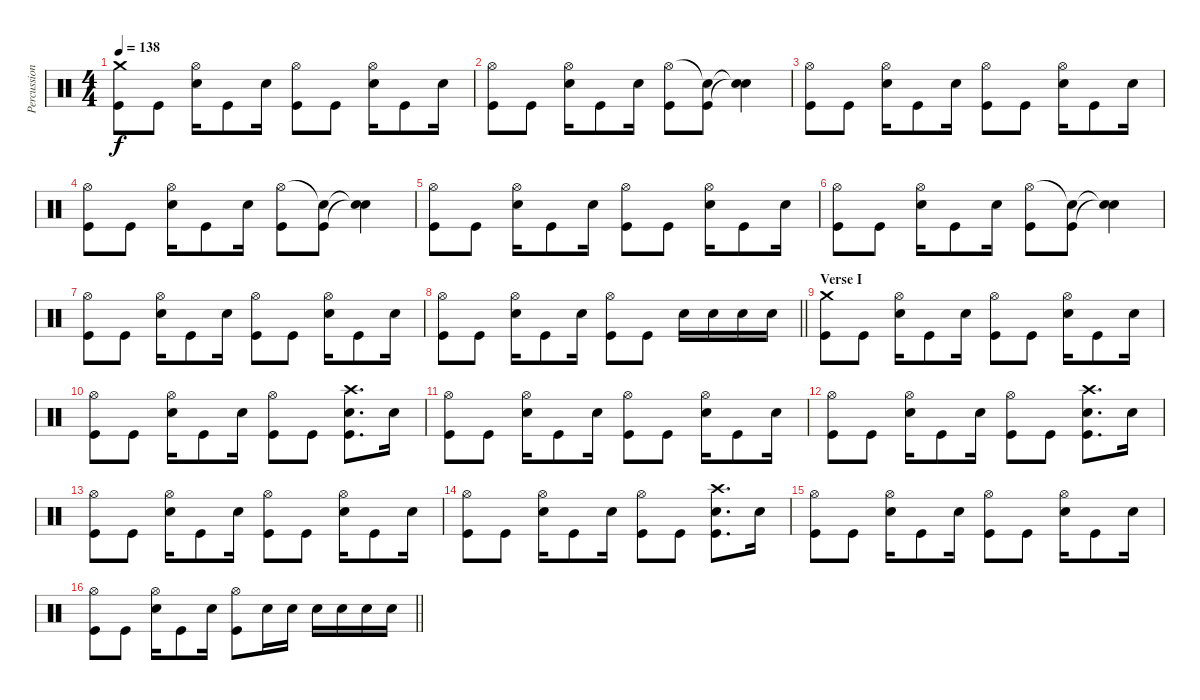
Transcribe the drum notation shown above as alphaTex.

\track ("Percussion" "Percussion") {instrument percussion}
\staff {score}
\articulation defaults
\ts (4 4)
\tempo 138
\clef neutral
\ks c
("Crash medium (hit)" "Kick (hit)").8{dy f} "Kick (hit)".8 ("Hi-Hat (open)" "Electric Snare (hit)").16 "Kick (hit)".8 "Electric Snare (hit)".16 ("Hi-Hat (open)" "Kick (hit)").8 "Kick (hit)".8 ("Hi-Hat (open)" "Electric Snare (hit)").16 "Kick (hit)".8 "Electric Snare (hit)".16 |
("Hi-Hat (open)" "Kick (hit)").8 "Kick (hit)".8 ("Hi-Hat (open)" "Electric Snare (hit)").16 "Kick (hit)".8 "Electric Snare (hit)".16 ("Hi-Hat (open)" "Kick (hit)").8 ("Snare (hit)"{t} "Kick (hit)").8 ("Snare (hit)"{t} "Snare (hit)"{t}).4 |
("Hi-Hat (open)" "Kick (hit)").8 "Kick (hit)".8 ("Hi-Hat (open)" "Electric Snare (hit)").16 "Kick (hit)".8 "Electric Snare (hit)".16 ("Hi-Hat (open)" "Kick (hit)").8 "Kick (hit)".8 ("Hi-Hat (open)" "Electric Snare (hit)").16 "Kick (hit)".8 "Electric Snare (hit)".16 |
("Hi-Hat (open)" "Kick (hit)").8 "Kick (hit)".8 ("Hi-Hat (open)" "Electric Snare (hit)").16 "Kick (hit)".8 "Electric Snare (hit)".16 ("Hi-Hat (open)" "Kick (hit)").8 ("Snare (hit)"{t} "Kick (hit)").8 ("Snare (hit)"{t} "Snare (hit)"{t}).4 |
("Hi-Hat (open)" "Kick (hit)").8 "Kick (hit)".8 ("Hi-Hat (open)" "Electric Snare (hit)").16 "Kick (hit)".8 "Electric Snare (hit)".16 ("Hi-Hat (open)" "Kick (hit)").8 "Kick (hit)".8 ("Hi-Hat (open)" "Electric Snare (hit)").16 "Kick (hit)".8 "Electric Snare (hit)".16 |
("Hi-Hat (open)" "Kick (hit)").8 "Kick (hit)".8 ("Hi-Hat (open)" "Electric Snare (hit)").16 "Kick (hit)".8 "Electric Snare (hit)".16 ("Hi-Hat (open)" "Kick (hit)").8 ("Snare (hit)"{t} "Kick (hit)").8 ("Snare (hit)"{t} "Snare (hit)"{t}).4 |
("Hi-Hat (open)" "Kick (hit)").8 "Kick (hit)".8 ("Hi-Hat (open)" "Electric Snare (hit)").16 "Kick (hit)".8 "Electric Snare (hit)".16 ("Hi-Hat (open)" "Kick (hit)").8 "Kick (hit)".8 ("Hi-Hat (open)" "Electric Snare (hit)").16 "Kick (hit)".8 "Electric Snare (hit)".16 |
\barLineRight lightlight
("Hi-Hat (open)" "Kick (hit)").8 "Kick (hit)".8 ("Hi-Hat (open)" "Electric Snare (hit)").16 "Kick (hit)".8 "Electric Snare (hit)".16 ("Hi-Hat (open)" "Kick (hit)").8 "Kick (hit)".8 "Electric Snare (hit)".16 "Electric Snare (hit)".16 "Electric Snare (hit)".16 "Electric Snare (hit)".16 |
\section ("" "Verse I")
("Crash medium (hit)" "Kick (hit)").8 "Kick (hit)".8 ("Hi-Hat (open)" "Electric Snare (hit)").16 "Kick (hit)".8 "Electric Snare (hit)".16 ("Hi-Hat (open)" "Kick (hit)").8 "Kick (hit)".8 ("Hi-Hat (open)" "Electric Snare (hit)").16 "Kick (hit)".8 "Electric Snare (hit)".16 |
("Hi-Hat (open)" "Kick (hit)").8 "Kick (hit)".8 ("Hi-Hat (open)" "Electric Snare (hit)").16 "Kick (hit)".8 "Electric Snare (hit)".16 ("Hi-Hat (open)" "Kick (hit)").8 "Kick (hit)".8 ("Crash high (hit)" "Electric Snare (hit)" "Kick (hit)").8{d} "Electric Snare (hit)".16 |
("Hi-Hat (open)" "Kick (hit)").8 "Kick (hit)".8 ("Hi-Hat (open)" "Electric Snare (hit)").16 "Kick (hit)".8 "Electric Snare (hit)".16 ("Hi-Hat (open)" "Kick (hit)").8 "Kick (hit)".8 ("Hi-Hat (open)" "Electric Snare (hit)").16 "Kick (hit)".8 "Electric Snare (hit)".16 |
("Hi-Hat (open)" "Kick (hit)").8 "Kick (hit)".8 ("Hi-Hat (open)" "Electric Snare (hit)").16 "Kick (hit)".8 "Electric Snare (hit)".16 ("Hi-Hat (open)" "Kick (hit)").8 "Kick (hit)".8 ("Crash high (hit)" "Electric Snare (hit)" "Kick (hit)").8{d} "Electric Snare (hit)".16 |
("Hi-Hat (open)" "Kick (hit)").8 "Kick (hit)".8 ("Hi-Hat (open)" "Electric Snare (hit)").16 "Kick (hit)".8 "Electric Snare (hit)".16 ("Hi-Hat (open)" "Kick (hit)").8 "Kick (hit)".8 ("Hi-Hat (open)" "Electric Snare (hit)").16 "Kick (hit)".8 "Electric Snare (hit)".16 |
("Hi-Hat (open)" "Kick (hit)").8 "Kick (hit)".8 ("Hi-Hat (open)" "Electric Snare (hit)").16 "Kick (hit)".8 "Electric Snare (hit)".16 ("Hi-Hat (open)" "Kick (hit)").8 "Kick (hit)".8 ("Crash high (hit)" "Electric Snare (hit)" "Kick (hit)").8{d} "Electric Snare (hit)".16 |
("Hi-Hat (open)" "Kick (hit)").8 "Kick (hit)".8 ("Hi-Hat (open)" "Electric Snare (hit)").16 "Kick (hit)".8 "Electric Snare (hit)".16 ("Hi-Hat (open)" "Kick (hit)").8 "Kick (hit)".8 ("Hi-Hat (open)" "Electric Snare (hit)").16 "Kick (hit)".8 "Electric Snare (hit)".16 |
\barLineRight lightlight
("Hi-Hat (open)" "Kick (hit)").8 "Kick (hit)".8 ("Hi-Hat (open)" "Electric Snare (hit)").16 "Kick (hit)".8 "Electric Snare (hit)".16 ("Hi-Hat (open)" "Kick (hit)").8 "Electric Snare (hit)".16 "Electric Snare (hit)".16 "Electric Snare (hit)".16 "Electric Snare (hit)".16 "Electric Snare (hit)".16 "Electric Snare (hit)".16
